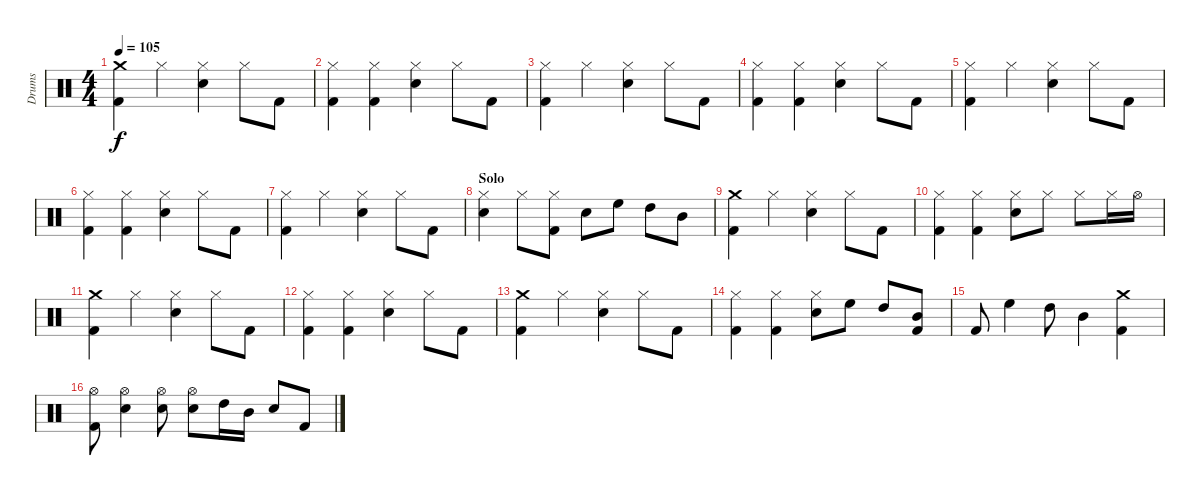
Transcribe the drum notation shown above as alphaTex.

\track ("Drums" "Drums") {instrument percussion}
\staff {score}
\articulation defaults
\ts (4 4)
\tempo 105
\clef neutral
\ks c
("Crash medium (hit)" "Kick (hit) 2").4{dy f} "Hi-Hat (closed)".4 ("Hi-Hat (closed)" "Snare (hit) 2").4 "Hi-Hat (closed)".8 "Kick (hit) 2".8 |
("Hi-Hat (closed)" "Kick (hit) 2").4 ("Hi-Hat (closed)" "Kick (hit) 2").4 ("Hi-Hat (closed)" "Snare (hit) 2").4 "Hi-Hat (closed)".8 "Kick (hit) 2".8 |
("Hi-Hat (closed)" "Kick (hit) 2").4 "Hi-Hat (closed)".4 ("Hi-Hat (closed)" "Snare (hit) 2").4 "Hi-Hat (closed)".8 "Kick (hit) 2".8 |
("Hi-Hat (closed)" "Kick (hit) 2").4 ("Hi-Hat (closed)" "Kick (hit) 2").4 ("Hi-Hat (closed)" "Snare (hit) 2").4 "Hi-Hat (closed)".8 "Kick (hit) 2".8 |
("Hi-Hat (closed)" "Kick (hit) 2").4 "Hi-Hat (closed)".4 ("Hi-Hat (closed)" "Snare (hit) 2").4 "Hi-Hat (closed)".8 "Kick (hit) 2".8 |
("Hi-Hat (closed)" "Kick (hit) 2").4 ("Hi-Hat (closed)" "Kick (hit) 2").4 ("Hi-Hat (closed)" "Snare (hit) 2").4 "Hi-Hat (closed)".8 "Kick (hit) 2".8 |
("Hi-Hat (closed)" "Kick (hit) 2").4 "Hi-Hat (closed)".4 ("Hi-Hat (closed)" "Snare (hit) 2").4 "Hi-Hat (closed)".8 "Kick (hit) 2".8 |
\section ("" "Solo")
("Hi-Hat (closed)" "Snare (hit) 2").4 "Hi-Hat (closed)".8 ("Hi-Hat (closed)" "Kick (hit) 2").8 "Snare (hit) 2".8 "High Floor Tom (hit)".8 "High Tom (hit)".8 "Mid Tom (hit)".8 |
("Crash medium (hit)" "Kick (hit) 2").4 "Hi-Hat (closed)".4 ("Hi-Hat (closed)" "Snare (hit) 2").4 "Hi-Hat (closed)".8 "Kick (hit) 2".8 |
("Hi-Hat (closed)" "Kick (hit) 2").4 ("Hi-Hat (closed)" "Kick (hit) 2").4 ("Hi-Hat (closed)" "Snare (hit) 2").8 "Hi-Hat (closed)".8 "Hi-Hat (closed)".8 "Hi-Hat (closed)".16 "Hi-Hat (open)".16 |
("Crash medium (hit)" "Kick (hit) 2").4 "Hi-Hat (closed)".4 ("Hi-Hat (closed)" "Snare (hit) 2").4 "Hi-Hat (closed)".8 "Kick (hit) 2".8 |
("Hi-Hat (closed)" "Kick (hit) 2").4 ("Hi-Hat (closed)" "Kick (hit) 2").4 ("Hi-Hat (closed)" "Snare (hit) 2").4 "Hi-Hat (closed)".8 "Kick (hit) 2".8 |
("Crash medium (hit)" "Kick (hit) 2").4 "Hi-Hat (closed)".4 ("Hi-Hat (closed)" "Snare (hit) 2").4 "Hi-Hat (closed)".8 "Kick (hit) 2".8 |
("Hi-Hat (closed)" "Kick (hit) 2").4 ("Hi-Hat (closed)" "Kick (hit) 2").4 ("Hi-Hat (closed)" "Snare (hit) 2").8 "High Floor Tom (hit)".8 "High Tom (hit)".8 ("Mid Tom (hit)" "Kick (hit) 2").8 |
"Kick (hit) 2".8 "High Floor Tom (hit)".4 "High Tom (hit)".8 "Mid Tom (hit)".4 ("Crash medium (hit)" "Kick (hit) 2").4 |
("Hi-Hat (open)" "Kick (hit) 2").8 ("Hi-Hat (open)" "Snare (hit) 2").4 ("Hi-Hat (open)" "Snare (hit) 2").8 ("Hi-Hat (open)" "Snare (hit) 2").8 "High Tom (hit)".16 "Mid Tom (hit)".16 "Snare (hit) 2".8 "Kick (hit) 2".8
